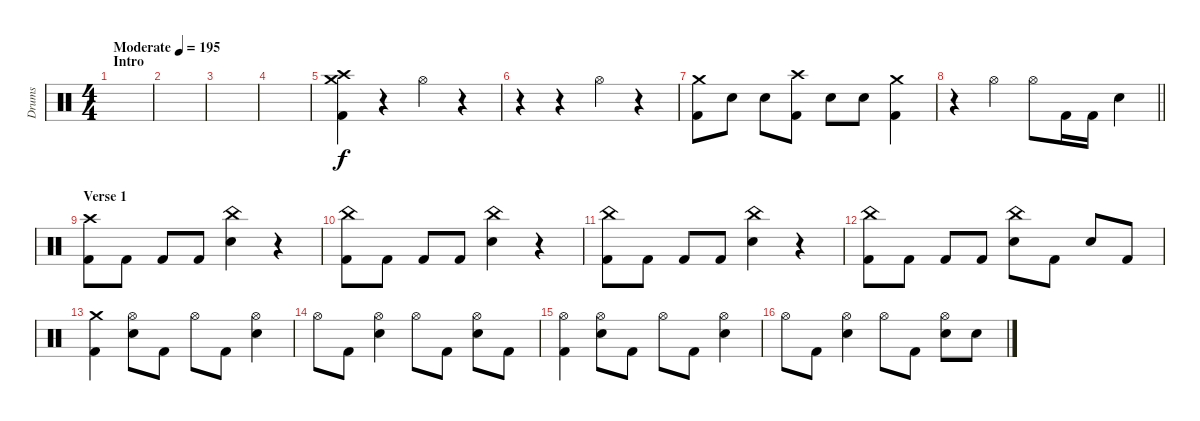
\track ("Drums" "Drums") {instrument percussion}
\staff {score}
\articulation defaults
\ts (4 4)
\section ("" "Intro")
\tempo (195 "Moderate")
\clef neutral
\ks c
|
|
|
|
("Crash medium (hit)" "Crash high (hit)" "Kick (hit) 2").4 r.4 "Hi-Hat (open)".4 r.4 |
r.4 r.4 "Hi-Hat (open)".4 r.4 |
("Crash medium (hit)" "Kick (hit) 2").8 "Snare (hit) 2".8 "Snare (hit) 2".8 ("Crash high (hit)" "Kick (hit) 2").8 "Snare (hit) 2".8 "Snare (hit) 2".8 ("Crash medium (hit)" "Kick (hit) 2").4 |
\barLineRight lightlight
r.4 "Hi-Hat (open)".4 "Hi-Hat (open)".8 "Kick (hit) 2".16 "Kick (hit) 2".16 "Snare (hit) 2".4 |
\section ("" "Verse 1")
("Crash high (hit)" "Kick (hit) 2").8 "Kick (hit) 2".8 "Kick (hit) 2".8 "Kick (hit) 2".8 ("China (hit)" "Snare (hit) 2").4 r.4 |
("China (hit)" "Kick (hit) 2").8 "Kick (hit) 2".8 "Kick (hit) 2".8 "Kick (hit) 2".8 ("China (hit)" "Snare (hit) 2").4 r.4 |
("China (hit)" "Kick (hit) 2").8 "Kick (hit) 2".8 "Kick (hit) 2".8 "Kick (hit) 2".8 ("China (hit)" "Snare (hit) 2").4 r.4 |
("China (hit)" "Kick (hit) 2").8 "Kick (hit) 2".8 "Kick (hit) 2".8 "Kick (hit) 2".8 ("China (hit)" "Snare (hit) 2").8 "Kick (hit) 2".8 "Snare (hit) 2".8 "Kick (hit) 2".8 |
("Crash medium (hit)" "Kick (hit) 2").4 ("Hi-Hat (open)" "Snare (hit) 2").8 "Kick (hit) 2".8 "Hi-Hat (open)".8 "Kick (hit) 2".8 ("Hi-Hat (open)" "Snare (hit) 2").4 |
"Hi-Hat (open)".8 "Kick (hit) 2".8 ("Hi-Hat (open)" "Snare (hit) 2").4 "Hi-Hat (open)".8 "Kick (hit) 2".8 ("Hi-Hat (open)" "Snare (hit) 2").8 "Kick (hit) 2".8 |
("Hi-Hat (open)" "Kick (hit) 2").4 ("Hi-Hat (open)" "Snare (hit) 2").8 "Kick (hit) 2".8 "Hi-Hat (open)".8 "Kick (hit) 2".8 ("Hi-Hat (open)" "Snare (hit) 2").4 |
"Hi-Hat (open)".8 "Kick (hit) 2".8 ("Hi-Hat (open)" "Snare (hit) 2").4 "Hi-Hat (open)".8 "Kick (hit) 2".8 ("Hi-Hat (open)" "Snare (hit) 2").8 "Snare (hit) 2".8
